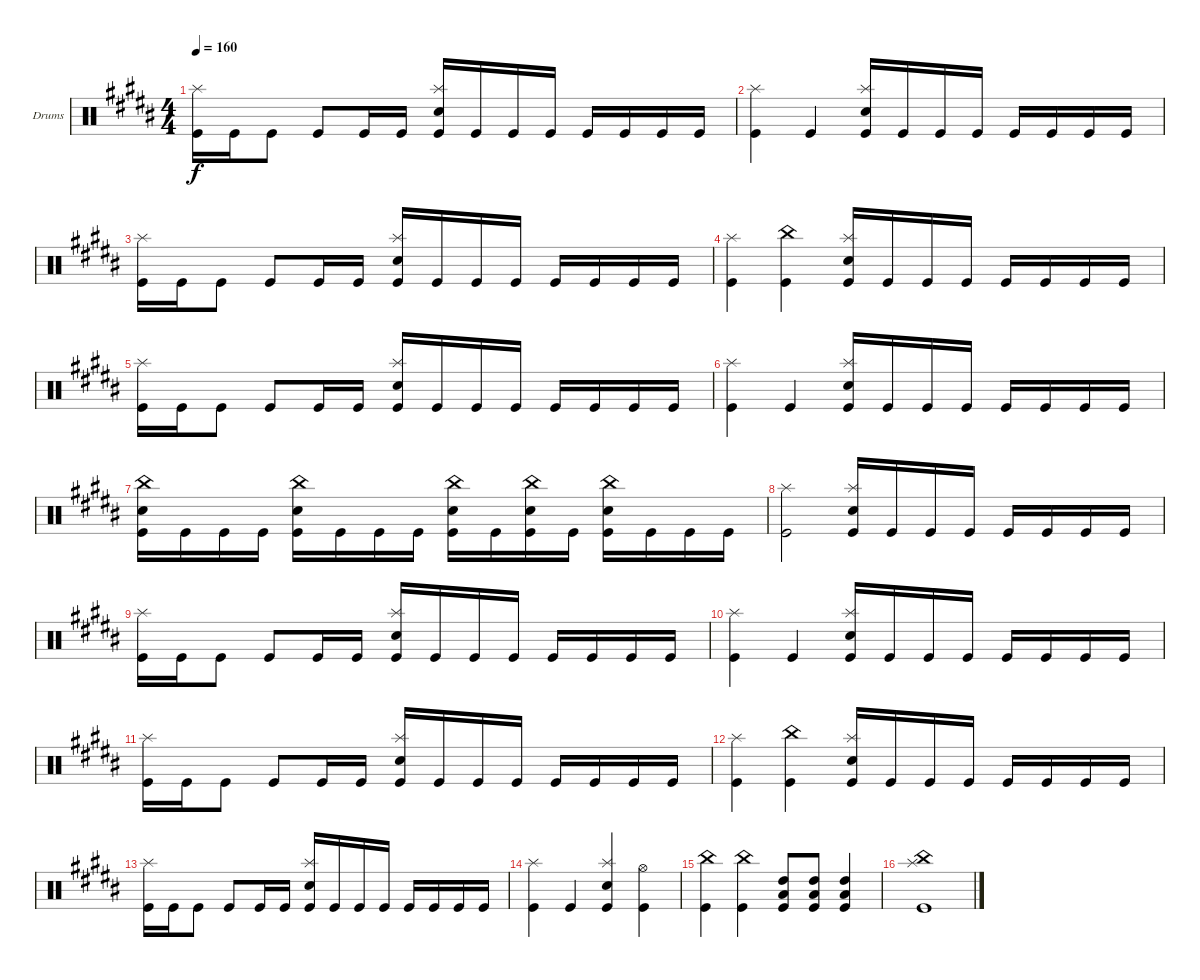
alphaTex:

\defaultSystemsLayout 4
\bracketExtendMode groupsimilarinstruments
\firstSystemTrackNameOrientation horizontal
\otherSystemsTrackNameOrientation horizontal
\track ("Drumkit" "Drums") {instrument percussion}
\staff {score}
\articulation defaults
\ts (4 4)
\tempo 160
\clef neutral
\scale
0.333333
\ks b
("Kick (hit)" "Splash (hit)").16{dy f} "Kick (hit)".16 "Kick (hit)".8 "Kick (hit)".8 "Kick (hit)".16 "Kick (hit)".16 ("Snare (hit) 2" "Kick (hit)" "Splash (hit)").16 "Kick (hit)".16 "Kick (hit)".16 "Kick (hit)".16 "Kick (hit)".16 "Kick (hit)".16 "Kick (hit)".16 "Kick (hit)".16 |
\scale
0.333333 ("Kick (hit)" "Splash (hit)").4 "Kick (hit)".4 ("Kick (hit)" "Snare (hit) 2" "Splash (hit)").16 "Kick (hit)".16 "Kick (hit)".16 "Kick (hit)".16 "Kick (hit)".16 "Kick (hit)".16 "Kick (hit)".16 "Kick (hit)".16 |
\scale
0.333333 ("Kick (hit)" "Splash (hit)").16 "Kick (hit)".16 "Kick (hit)".8 "Kick (hit)".8 "Kick (hit)".16 "Kick (hit)".16 ("Snare (hit) 2" "Kick (hit)" "Splash (hit)").16 "Kick (hit)".16 "Kick (hit)".16 "Kick (hit)".16 "Kick (hit)".16 "Kick (hit)".16 "Kick (hit)".16 "Kick (hit)".16 |
\scale
0.333333 ("Kick (hit)" "Splash (hit)").4 ("Kick (hit)" "China (hit)").4 ("Kick (hit)" "Snare (hit) 2" "Splash (hit)").16 "Kick (hit)".16 "Kick (hit)".16 "Kick (hit)".16 "Kick (hit)".16 "Kick (hit)".16 "Kick (hit)".16 "Kick (hit)".16 |
\scale
0.333333 ("Kick (hit)" "Splash (hit)").16 "Kick (hit)".16 "Kick (hit)".8 "Kick (hit)".8 "Kick (hit)".16 "Kick (hit)".16 ("Snare (hit) 2" "Kick (hit)" "Splash (hit)").16 "Kick (hit)".16 "Kick (hit)".16 "Kick (hit)".16 "Kick (hit)".16 "Kick (hit)".16 "Kick (hit)".16 "Kick (hit)".16 |
\scale
0.333333 ("Kick (hit)" "Splash (hit)").4 "Kick (hit)".4 ("Kick (hit)" "Snare (hit) 2" "Splash (hit)").16 "Kick (hit)".16 "Kick (hit)".16 "Kick (hit)".16 "Kick (hit)".16 "Kick (hit)".16 "Kick (hit)".16 "Kick (hit)".16 |
\scale
0.333333 ("Kick (hit)" "Snare (hit) 2" "China (hit)").16 "Kick (hit)".16 "Kick (hit)".16 "Kick (hit)".16 ("Kick (hit)" "Snare (hit) 2" "China (hit)").16 "Kick (hit)".16 "Kick (hit)".16 "Kick (hit)".16 ("Kick (hit)" "Snare (hit) 2" "China (hit)").16 "Kick (hit)".16 ("Kick (hit)" "Snare (hit) 2" "China (hit)").16 "Kick (hit)".16 ("Kick (hit)" "Snare (hit) 2" "China (hit)").16 "Kick (hit)".16 "Kick (hit)".16 "Kick (hit)".16 |
\scale
0.333333 ("Kick (hit)" "Splash (hit)").2 ("Kick (hit)" "Snare (hit) 2" "Splash (hit)").16 "Kick (hit)".16 "Kick (hit)".16 "Kick (hit)".16 "Kick (hit)".16 "Kick (hit)".16 "Kick (hit)".16 "Kick (hit)".16 |
\scale
0.333333 ("Kick (hit)" "Splash (hit)").16 "Kick (hit)".16 "Kick (hit)".8 "Kick (hit)".8 "Kick (hit)".16 "Kick (hit)".16 ("Snare (hit) 2" "Kick (hit)" "Splash (hit)").16 "Kick (hit)".16 "Kick (hit)".16 "Kick (hit)".16 "Kick (hit)".16 "Kick (hit)".16 "Kick (hit)".16 "Kick (hit)".16 |
\scale
0.333333 ("Kick (hit)" "Splash (hit)").4 "Kick (hit)".4 ("Kick (hit)" "Snare (hit) 2" "Splash (hit)").16 "Kick (hit)".16 "Kick (hit)".16 "Kick (hit)".16 "Kick (hit)".16 "Kick (hit)".16 "Kick (hit)".16 "Kick (hit)".16 |
\scale
0.333333 ("Kick (hit)" "Splash (hit)").16 "Kick (hit)".16 "Kick (hit)".8 "Kick (hit)".8 "Kick (hit)".16 "Kick (hit)".16 ("Snare (hit) 2" "Kick (hit)" "Splash (hit)").16 "Kick (hit)".16 "Kick (hit)".16 "Kick (hit)".16 "Kick (hit)".16 "Kick (hit)".16 "Kick (hit)".16 "Kick (hit)".16 |
\scale
0.333333 ("Kick (hit)" "Splash (hit)").4 ("Kick (hit)" "China (hit)").4 ("Kick (hit)" "Snare (hit) 2" "Splash (hit)").16 "Kick (hit)".16 "Kick (hit)".16 "Kick (hit)".16 "Kick (hit)".16 "Kick (hit)".16 "Kick (hit)".16 "Kick (hit)".16 |
\scale
0.333333 ("Kick (hit)" "Splash (hit)").16 "Kick (hit)".16 "Kick (hit)".8 "Kick (hit)".8 "Kick (hit)".16 "Kick (hit)".16 ("Snare (hit) 2" "Kick (hit)" "Splash (hit)").16 "Kick (hit)".16 "Kick (hit)".16 "Kick (hit)".16 "Kick (hit)".16 "Kick (hit)".16 "Kick (hit)".16 "Kick (hit)".16 |
\scale
0.333333 ("Kick (hit)" "Splash (hit)").4 "Kick (hit)".4 ("Kick (hit)" "Snare (hit) 2" "Splash (hit)").4 ("Kick (hit)" "Hi-Hat (open)").4 |
\scale
0.333333 ("China (hit)" "Kick (hit)").4 ("Kick (hit)" "China (hit)").4 ("Kick (hit)" "Low Tom (hit)" "High Tom (hit)").8 ("Kick (hit)" "High Tom (hit)" "Low Tom (hit)").8 ("Kick (hit)" "Low Tom (hit)" "High Tom (hit)").4 |
\scale
0.333333 ("Kick (hit)" "China (hit)" "Splash (hit)").1
